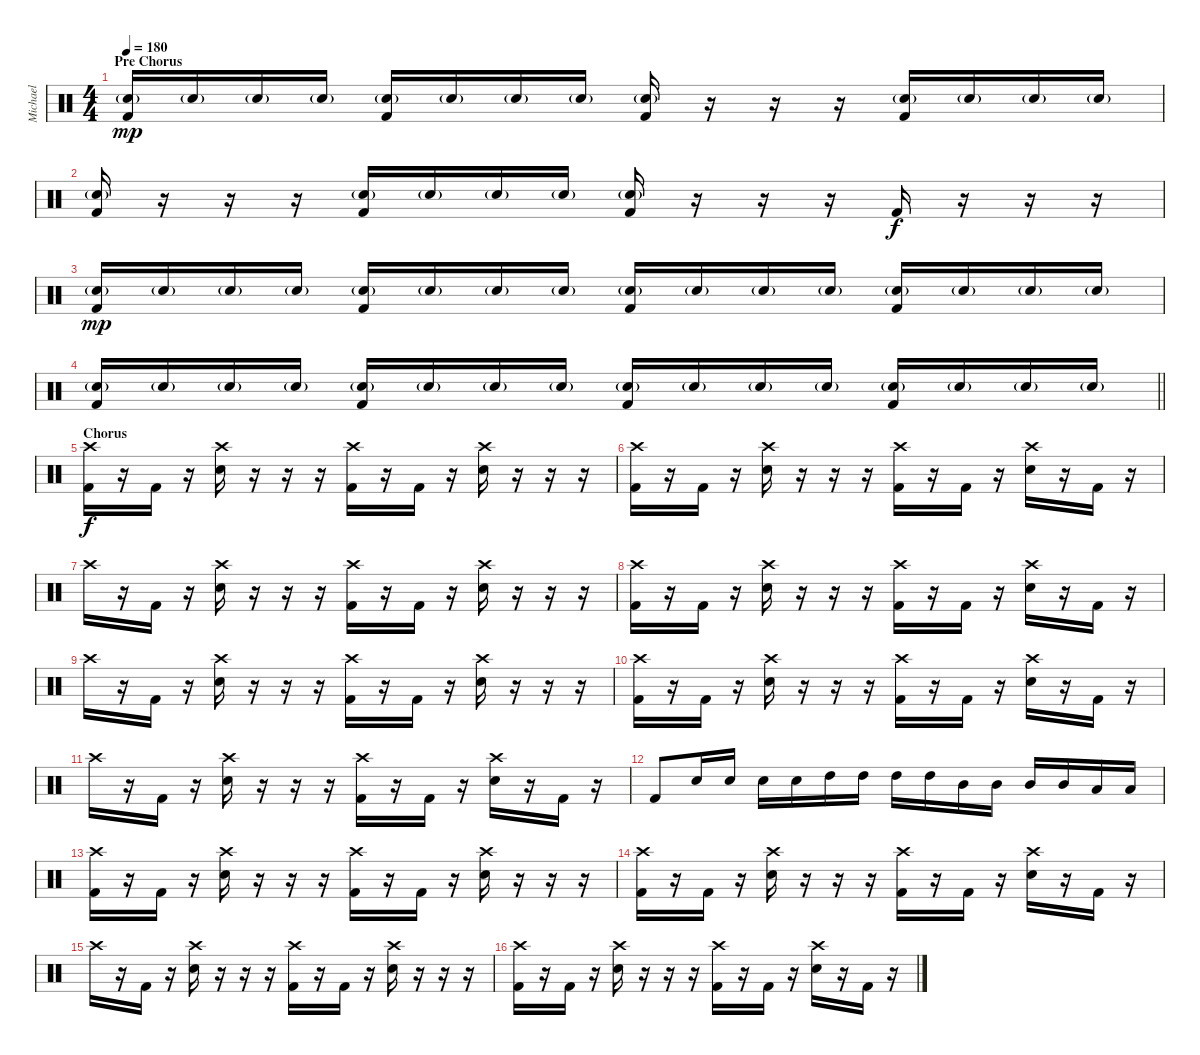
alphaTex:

\track ("Michael" "Michael") {instrument percussion}
\staff {score}
\articulation defaults
\ts (4 4)
\section ("" "Pre Chorus")
\tempo 180
\clef neutral
\ks c
("Electric Snare (hit)"{g} "Kick (hit) 2").16{dy mp} "Electric Snare (hit)"{g}.16 "Electric Snare (hit)"{g}.16 "Electric Snare (hit)"{g}.16 ("Electric Snare (hit)"{g} "Kick (hit) 2").16 "Electric Snare (hit)"{g}.16 "Electric Snare (hit)"{g}.16 "Electric Snare (hit)"{g}.16 ("Electric Snare (hit)"{g} "Kick (hit) 2").16 r.16 r.16 r.16 ("Electric Snare (hit)"{g} "Kick (hit) 2").16 "Electric Snare (hit)"{g}.16 "Electric Snare (hit)"{g}.16 "Electric Snare (hit)"{g}.16 |
("Electric Snare (hit)"{g} "Kick (hit) 2").16 r.16 r.16 r.16 ("Electric Snare (hit)"{g} "Kick (hit) 2").16 "Electric Snare (hit)"{g}.16 "Electric Snare (hit)"{g}.16 "Electric Snare (hit)"{g}.16 ("Electric Snare (hit)"{g} "Kick (hit) 2").16 r.16 r.16 r.16 "Kick (hit) 2".16{dy f} r.16 r.16 r.16 |
("Electric Snare (hit)"{g} "Kick (hit) 2").16{dy mp} "Electric Snare (hit)"{g}.16 "Electric Snare (hit)"{g}.16 "Electric Snare (hit)"{g}.16 ("Electric Snare (hit)"{g} "Kick (hit) 2").16 "Electric Snare (hit)"{g}.16 "Electric Snare (hit)"{g}.16 "Electric Snare (hit)"{g}.16 ("Electric Snare (hit)"{g} "Kick (hit) 2").16 "Electric Snare (hit)"{g}.16 "Electric Snare (hit)"{g}.16 "Electric Snare (hit)"{g}.16 ("Electric Snare (hit)"{g} "Kick (hit) 2").16 "Electric Snare (hit)"{g}.16 "Electric Snare (hit)"{g}.16 "Electric Snare (hit)"{g}.16 |
\barLineRight lightlight
("Electric Snare (hit)"{g} "Kick (hit) 2").16 "Electric Snare (hit)"{g}.16 "Electric Snare (hit)"{g}.16 "Electric Snare (hit)"{g}.16 ("Electric Snare (hit)"{g} "Kick (hit) 2").16 "Electric Snare (hit)"{g}.16 "Electric Snare (hit)"{g}.16 "Electric Snare (hit)"{g}.16 ("Electric Snare (hit)"{g} "Kick (hit) 2").16 "Electric Snare (hit)"{g}.16 "Electric Snare (hit)"{g}.16 "Electric Snare (hit)"{g}.16 ("Electric Snare (hit)"{g} "Kick (hit) 2").16 "Electric Snare (hit)"{g}.16 "Electric Snare (hit)"{g}.16 "Electric Snare (hit)"{g}.16 |
\section ("" "Chorus")
("Crash high (hit)" "Kick (hit) 2").16{dy f} r.16 "Kick (hit) 2".16 r.16 ("Crash high (hit)" "Electric Snare (hit)").16 r.16 r.16 r.16 ("Crash high (hit)" "Kick (hit) 2").16 r.16 "Kick (hit) 2".16 r.16 ("Crash high (hit)" "Electric Snare (hit)").16 r.16 r.16 r.16 |
("Crash high (hit)" "Kick (hit) 2").16 r.16 "Kick (hit) 2".16 r.16 ("Crash high (hit)" "Electric Snare (hit)").16 r.16 r.16 r.16 ("Crash high (hit)" "Kick (hit) 2").16 r.16 "Kick (hit) 2".16 r.16 ("Crash high (hit)" "Electric Snare (hit)").16 r.16 "Kick (hit) 2".16 r.16 |
"Crash high (hit)".16 r.16 "Kick (hit) 2".16 r.16 ("Crash high (hit)" "Electric Snare (hit)").16 r.16 r.16 r.16 ("Crash high (hit)" "Kick (hit) 2").16 r.16 "Kick (hit) 2".16 r.16 ("Crash high (hit)" "Electric Snare (hit)").16 r.16 r.16 r.16 |
("Crash high (hit)" "Kick (hit) 2").16 r.16 "Kick (hit) 2".16 r.16 ("Crash high (hit)" "Electric Snare (hit)").16 r.16 r.16 r.16 ("Crash high (hit)" "Kick (hit) 2").16 r.16 "Kick (hit) 2".16 r.16 ("Crash high (hit)" "Electric Snare (hit)").16 r.16 "Kick (hit) 2".16 r.16 |
"Crash high (hit)".16 r.16 "Kick (hit) 2".16 r.16 ("Crash high (hit)" "Electric Snare (hit)").16 r.16 r.16 r.16 ("Crash high (hit)" "Kick (hit) 2").16 r.16 "Kick (hit) 2".16 r.16 ("Crash high (hit)" "Electric Snare (hit)").16 r.16 r.16 r.16 |
("Crash high (hit)" "Kick (hit) 2").16 r.16 "Kick (hit) 2".16 r.16 ("Crash high (hit)" "Electric Snare (hit)").16 r.16 r.16 r.16 ("Crash high (hit)" "Kick (hit) 2").16 r.16 "Kick (hit) 2".16 r.16 ("Crash high (hit)" "Electric Snare (hit)").16 r.16 "Kick (hit) 2".16 r.16 |
"Crash high (hit)".16 r.16 "Kick (hit) 2".16 r.16 ("Crash high (hit)" "Electric Snare (hit)").16 r.16 r.16 r.16 ("Crash high (hit)" "Kick (hit) 2").16 r.16 "Kick (hit) 2".16 r.16 ("Crash high (hit)" "Electric Snare (hit)").16 r.16 "Kick (hit) 2".16 r.16 |
"Kick (hit) 2".8 "Electric Snare (hit)".16 "Electric Snare (hit)".16 "Electric Snare (hit)".16 "Electric Snare (hit)".16 "High Tom (hit)".16 "High Tom (hit)".16 "High Tom (hit)".16 "High Tom (hit)".16 "Mid Tom (hit)".16 "Mid Tom (hit)".16 "Mid Tom (hit)".16 "Mid Tom (hit)".16 "Low Tom (hit)".16 "Low Tom (hit)".16 |
("Crash high (hit)" "Kick (hit) 2").16 r.16 "Kick (hit) 2".16 r.16 ("Crash high (hit)" "Electric Snare (hit)").16 r.16 r.16 r.16 ("Crash high (hit)" "Kick (hit) 2").16 r.16 "Kick (hit) 2".16 r.16 ("Crash high (hit)" "Electric Snare (hit)").16 r.16 r.16 r.16 |
("Crash high (hit)" "Kick (hit) 2").16 r.16 "Kick (hit) 2".16 r.16 ("Crash high (hit)" "Electric Snare (hit)").16 r.16 r.16 r.16 ("Crash high (hit)" "Kick (hit) 2").16 r.16 "Kick (hit) 2".16 r.16 ("Crash high (hit)" "Electric Snare (hit)").16 r.16 "Kick (hit) 2".16 r.16 |
"Crash high (hit)".16 r.16 "Kick (hit) 2".16 r.16 ("Crash high (hit)" "Electric Snare (hit)").16 r.16 r.16 r.16 ("Crash high (hit)" "Kick (hit) 2").16 r.16 "Kick (hit) 2".16 r.16 ("Crash high (hit)" "Electric Snare (hit)").16 r.16 r.16 r.16 |
("Crash high (hit)" "Kick (hit) 2").16 r.16 "Kick (hit) 2".16 r.16 ("Crash high (hit)" "Electric Snare (hit)").16 r.16 r.16 r.16 ("Crash high (hit)" "Kick (hit) 2").16 r.16 "Kick (hit) 2".16 r.16 ("Crash high (hit)" "Electric Snare (hit)").16 r.16 "Kick (hit) 2".16 r.16
